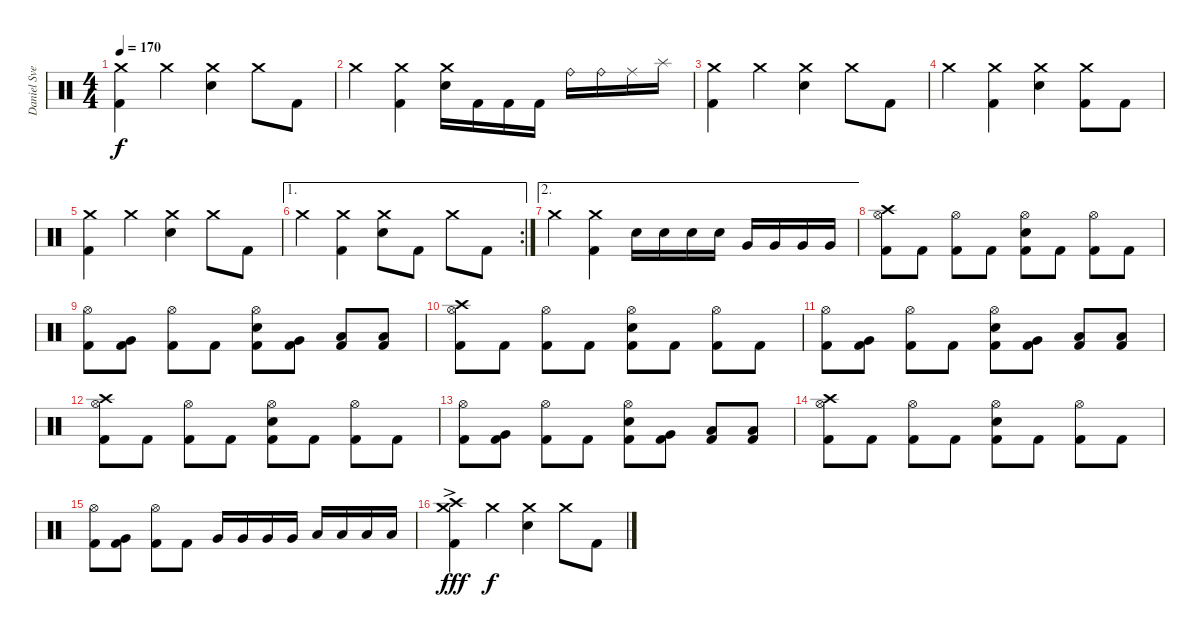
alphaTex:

\track ("Daniel Svensson" "Daniel Sve") {instrument percussion}
\staff {score}
\articulation defaults
\ts (4 4)
\tempo 170
\clef neutral
\ks c
("Crash medium (hit)" "Kick (hit) 2").4{dy f} "Crash medium (hit)".4 ("Crash medium (hit)" "Electric Snare (hit)").4 "Crash medium (hit)".8 "Kick (hit) 2".8 |
"Crash medium (hit)".4 ("Crash medium (hit)" "Kick (hit) 2").4 ("Crash medium (hit)" "Electric Snare (hit)").16 "Kick (hit) 2".16 "Kick (hit) 2".16 "Kick (hit) 2".16 "Ride (bell)".16 "Ride (bell)".16 "Ride (middle)".16 "Splash (hit)".16 |
("Crash medium (hit)" "Kick (hit) 2").4 "Crash medium (hit)".4 ("Crash medium (hit)" "Electric Snare (hit)").4 "Crash medium (hit)".8 "Kick (hit) 2".8 |
"Crash medium (hit)".4 ("Crash medium (hit)" "Kick (hit) 2").4 ("Crash medium (hit)" "Electric Snare (hit)").4 ("Crash medium (hit)" "Kick (hit) 2").8 "Kick (hit) 2".8 |
("Crash medium (hit)" "Kick (hit) 2").4 "Crash medium (hit)".4 ("Crash medium (hit)" "Electric Snare (hit)").4 "Crash medium (hit)".8 "Kick (hit) 2".8 |
\ae 1
\rc 2 "Crash medium (hit)".4
("Crash medium (hit)" "Kick (hit) 2").4 ("Crash medium (hit)" "Electric Snare (hit)").8 "Kick (hit) 2".8 "Crash medium (hit)".8 "Kick (hit) 2".8 |
\ae 2 "Crash medium (hit)".4
("Crash medium (hit)" "Kick (hit) 2").4 "Electric Snare (hit)".16 "Electric Snare (hit)".16 "Electric Snare (hit)".16 "Electric Snare (hit)".16 "Very Low Tom (hit)".16 "Very Low Tom (hit)".16 "Very Low Tom (hit)".16 "Very Low Tom (hit)".16 |
("Crash high (hit)" "Hi-Hat (open)" "Kick (hit) 2").8 "Kick (hit) 2".8 ("Hi-Hat (open)" "Kick (hit) 2").8 "Kick (hit) 2".8 ("Hi-Hat (open)" "Electric Snare (hit)" "Kick (hit) 2").8 "Kick (hit) 2".8 ("Hi-Hat (open)" "Kick (hit) 2").8 "Kick (hit) 2".8 |
("Hi-Hat (open)" "Kick (hit) 2").8 ("Very Low Tom (hit)" "Kick (hit) 2").8 ("Hi-Hat (open)" "Kick (hit) 2").8 "Kick (hit) 2".8 ("Hi-Hat (open)" "Electric Snare (hit)" "Kick (hit) 2").8 ("Very Low Tom (hit)" "Kick (hit) 2").8 ("Low Floor Tom (hit)" "Kick (hit) 2").8 ("Low Floor Tom (hit)" "Kick (hit) 2").8 |
("Crash high (hit)" "Hi-Hat (open)" "Kick (hit) 2").8 "Kick (hit) 2".8 ("Hi-Hat (open)" "Kick (hit) 2").8 "Kick (hit) 2".8 ("Hi-Hat (open)" "Electric Snare (hit)" "Kick (hit) 2").8 "Kick (hit) 2".8 ("Hi-Hat (open)" "Kick (hit) 2").8 "Kick (hit) 2".8 |
("Hi-Hat (open)" "Kick (hit) 2").8 ("Very Low Tom (hit)" "Kick (hit) 2").8 ("Hi-Hat (open)" "Kick (hit) 2").8 "Kick (hit) 2".8 ("Hi-Hat (open)" "Electric Snare (hit)" "Kick (hit) 2").8 ("Very Low Tom (hit)" "Kick (hit) 2").8 ("Low Floor Tom (hit)" "Kick (hit) 2").8 ("Low Floor Tom (hit)" "Kick (hit) 2").8 |
("Crash high (hit)" "Hi-Hat (open)" "Kick (hit) 2").8 "Kick (hit) 2".8 ("Hi-Hat (open)" "Kick (hit) 2").8 "Kick (hit) 2".8 ("Hi-Hat (open)" "Electric Snare (hit)" "Kick (hit) 2").8 "Kick (hit) 2".8 ("Hi-Hat (open)" "Kick (hit) 2").8 "Kick (hit) 2".8 |
("Hi-Hat (open)" "Kick (hit) 2").8 ("Very Low Tom (hit)" "Kick (hit) 2").8 ("Hi-Hat (open)" "Kick (hit) 2").8 "Kick (hit) 2".8 ("Hi-Hat (open)" "Electric Snare (hit)" "Kick (hit) 2").8 ("Very Low Tom (hit)" "Kick (hit) 2").8 ("Low Floor Tom (hit)" "Kick (hit) 2").8 ("Low Floor Tom (hit)" "Kick (hit) 2").8 |
("Crash high (hit)" "Hi-Hat (open)" "Kick (hit) 2").8 "Kick (hit) 2".8 ("Hi-Hat (open)" "Kick (hit) 2").8 "Kick (hit) 2".8 ("Hi-Hat (open)" "Electric Snare (hit)" "Kick (hit) 2").8 "Kick (hit) 2".8 ("Hi-Hat (open)" "Kick (hit) 2").8 "Kick (hit) 2".8 |
("Hi-Hat (open)" "Kick (hit) 2").8 ("Very Low Tom (hit)" "Kick (hit) 2").8 ("Hi-Hat (open)" "Kick (hit) 2").8 "Kick (hit) 2".8 "Very Low Tom (hit)".16 "Very Low Tom (hit)".16 "Very Low Tom (hit)".16 "Very Low Tom (hit)".16 "Low Floor Tom (hit)".16 "Low Floor Tom (hit)".16 "Low Floor Tom (hit)".16 "Low Floor Tom (hit)".16 |
("Crash high (hit)"{ac} "Crash medium (hit)"{ac} "Kick (hit) 2"{ac}).4{dy fff} "Crash medium (hit)".4{dy f} ("Crash medium (hit)" "Electric Snare (hit)").4 "Crash medium (hit)".8 "Kick (hit) 2".8
